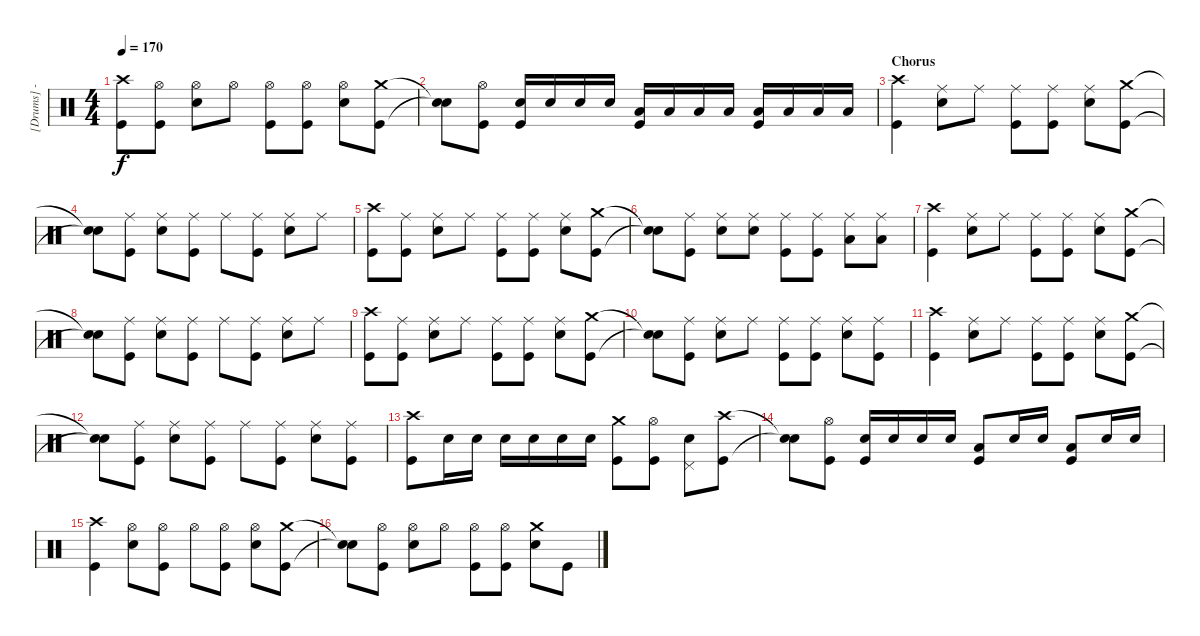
\track ("[Drums] - Trè Cool" "[Drums] - ") {instrument percussion}
\staff {score}
\articulation defaults
\ts (4 4)
\tempo 170
\clef neutral
\ks c
("Kick (hit)" "Crash high (hit)").8{dy f} ("Kick (hit)" "Hi-Hat (open)").8 ("Snare (hit) 2" "Hi-Hat (open)").8 "Hi-Hat (open)".8 ("Hi-Hat (open)" "Kick (hit)").8 ("Kick (hit)" "Hi-Hat (open)").8 ("Snare (hit) 2" "Hi-Hat (open)").8 ("Kick (hit)" "Crash medium (hit)").8 |
("Snare (hit)"{t} "Snare (hit)"{t}).8 ("Kick (hit)" "Hi-Hat (open)").8 ("Snare (hit) 2" "Kick (hit)").16 "Snare (hit) 2".16 "Snare (hit) 2".16 "Snare (hit) 2".16 ("Low Tom (hit)" "Kick (hit)").16 "Low Tom (hit)".16 "Low Tom (hit)".16 "Low Tom (hit)".16 ("Low Floor Tom (hit)" "Kick (hit)").16 "Low Floor Tom (hit)".16 "Low Floor Tom (hit)".16 "Low Floor Tom (hit)".16 |
\section ("" "Chorus")
("Kick (hit)" "Crash high (hit)").4 ("Snare (hit) 2" "Ride (middle)").8 "Ride (middle)".8 ("Kick (hit)" "Ride (middle)").8 ("Kick (hit)" "Ride (middle)").8 ("Snare (hit) 2" "Ride (middle)").8 ("Kick (hit)" "Crash medium (hit)").8 |
("Snare (hit)"{t} "Snare (hit)"{t}).8 ("Kick (hit)" "Ride (middle)").8 ("Snare (hit) 2" "Ride (middle)").8 ("Kick (hit)" "Ride (middle)").8 "Ride (middle)".8 ("Kick (hit)" "Ride (middle)").8 ("Snare (hit) 2" "Ride (middle)").8 "Ride (middle)".8 |
("Kick (hit)" "Crash high (hit)").8 ("Kick (hit)" "Ride (middle)").8 ("Snare (hit) 2" "Ride (middle)").8 "Ride (middle)".8 ("Kick (hit)" "Ride (middle)").8 ("Kick (hit)" "Ride (middle)").8 ("Snare (hit) 2" "Ride (middle)").8 ("Kick (hit)" "Crash medium (hit)").8 |
("Snare (hit)"{t} "Snare (hit)"{t}).8 ("Kick (hit)" "Ride (middle)").8 ("Snare (hit) 2" "Ride (middle)").8 ("Snare (hit) 2" "Ride (middle)").8 ("Kick (hit)" "Ride (middle)").8 ("Kick (hit)" "Ride (middle)").8 ("Low Tom (hit)" "Ride (middle)").8 ("Low Tom (hit)" "Ride (middle)").8 |
("Kick (hit)" "Crash high (hit)").4 ("Snare (hit) 2" "Ride (middle)").8 "Ride (middle)".8 ("Kick (hit)" "Ride (middle)").8 ("Kick (hit)" "Ride (middle)").8 ("Snare (hit) 2" "Ride (middle)").8 ("Kick (hit)" "Crash medium (hit)").8 |
("Snare (hit)"{t} "Snare (hit)"{t}).8 ("Kick (hit)" "Ride (middle)").8 ("Snare (hit) 2" "Ride (middle)").8 ("Kick (hit)" "Ride (middle)").8 "Ride (middle)".8 ("Kick (hit)" "Ride (middle)").8 ("Snare (hit) 2" "Ride (middle)").8 "Ride (middle)".8 |
("Kick (hit)" "Crash high (hit)").8 ("Kick (hit)" "Ride (middle)").8 ("Snare (hit) 2" "Ride (middle)").8 "Ride (middle)".8 ("Kick (hit)" "Ride (middle)").8 ("Kick (hit)" "Ride (middle)").8 ("Snare (hit) 2" "Ride (middle)").8 ("Kick (hit)" "Crash medium (hit)").8 |
("Snare (hit)"{t} "Snare (hit)"{t}).8 ("Kick (hit)" "Ride (middle)").8 ("Snare (hit) 2" "Ride (middle)").8 "Ride (middle)".8 ("Kick (hit)" "Ride (middle)").8 ("Kick (hit)" "Ride (middle)").8 ("Ride (middle)" "Snare (hit) 2").8 ("Ride (middle)" "Kick (hit)").8 |
("Kick (hit)" "Crash high (hit)").4 ("Snare (hit) 2" "Ride (middle)").8 "Ride (middle)".8 ("Kick (hit)" "Ride (middle)").8 ("Kick (hit)" "Ride (middle)").8 ("Snare (hit) 2" "Ride (middle)").8 ("Kick (hit)" "Crash medium (hit)").8 |
("Snare (hit)"{t} "Snare (hit)"{t}).8 ("Kick (hit)" "Ride (middle)").8 ("Snare (hit) 2" "Ride (middle)").8 ("Kick (hit)" "Ride (middle)").8 "Ride (middle)".8 ("Kick (hit)" "Ride (middle)").8 ("Snare (hit) 2" "Ride (middle)").8 ("Ride (middle)" "Kick (hit)").8 |
("Kick (hit)" "Crash high (hit)").8 "Snare (hit) 2".16 "Snare (hit) 2".16 "Snare (hit) 2".16 "Snare (hit) 2".16 "Snare (hit) 2".16 "Snare (hit) 2".16 ("Kick (hit)" "Crash medium (hit)").8 ("Kick (hit)" "Hi-Hat (open)").8 ("Snare (hit) 2" "Pedal Hi-Hat (hit)").8 ("Kick (hit)" "Crash high (hit)").8 |
("Snare (hit)"{t} "Snare (hit)"{t}).8 ("Kick (hit)" "Hi-Hat (open)").8 ("Snare (hit) 2" "Kick (hit)").16 "Snare (hit) 2".16 "Snare (hit) 2".16 "Snare (hit) 2".16 ("Low Tom (hit)" "Kick (hit)").8 "Snare (hit) 2".16 "Snare (hit) 2".16 ("Low Floor Tom (hit)" "Kick (hit)").8 "Snare (hit) 2".16 "Snare (hit) 2".16 |
("Kick (hit)" "Crash high (hit)").4 ("Snare (hit) 2" "Hi-Hat (open)").8 ("Kick (hit)" "Hi-Hat (open)").8 "Hi-Hat (open)".8 ("Kick (hit)" "Hi-Hat (open)").8 ("Snare (hit) 2" "Hi-Hat (open)").8 ("Kick (hit)" "Crash medium (hit)").8 |
("Snare (hit)"{t} "Snare (hit)"{t}).8 ("Kick (hit)" "Hi-Hat (open)").8 ("Snare (hit) 2" "Hi-Hat (open)").8 "Hi-Hat (open)".8 ("Kick (hit)" "Hi-Hat (open)").8 ("Kick (hit)" "Hi-Hat (open)").8 ("Snare (hit) 2" "Crash medium (hit)").8 "Kick (hit)".8
